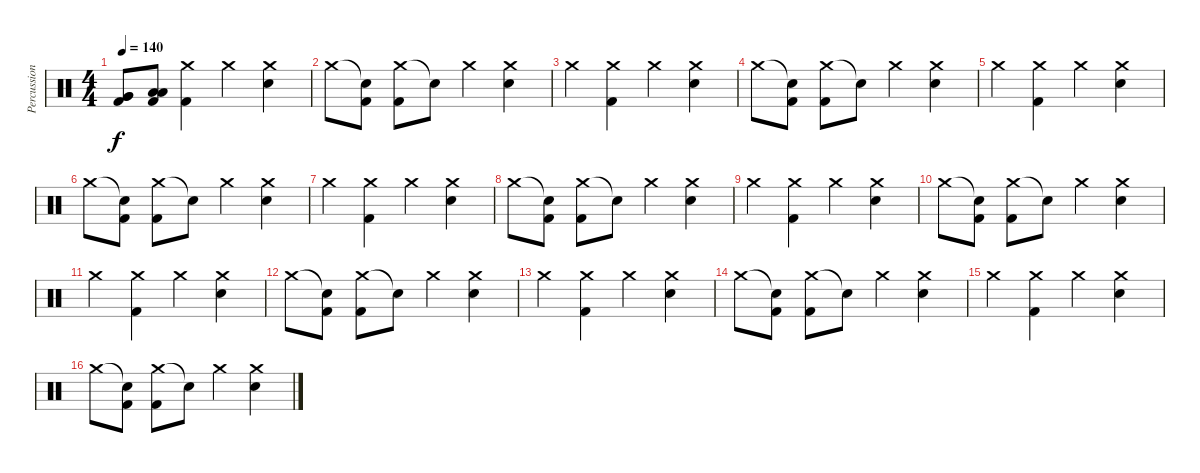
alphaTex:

\track ("Percussions" "Percussion") {instrument percussion}
\staff {score}
\articulation defaults
\ts (4 4)
\tempo 140
\clef neutral
\ks c
("Very Low Tom (hit)" "Very Low Tom (hit)" "Kick (hit) 2").8{dy f} ("Low Floor Tom (hit)" "Low Floor Tom (hit)" "Kick (hit) 2").8 ("Crash medium (hit)" "Kick (hit) 2").4 "Crash medium (hit)".4 ("Crash medium (hit)" "Electric Snare (hit)").4 |
"Crash medium (hit)".8 ("Snare (hit)"{t} "Kick (hit) 2").8 ("Crash medium (hit)" "Kick (hit) 2").8 "Snare (hit)"{t}.8 "Crash medium (hit)".4 ("Crash medium (hit)" "Electric Snare (hit)").4 |
"Crash medium (hit)".4 ("Crash medium (hit)" "Kick (hit) 2").4 "Crash medium (hit)".4 ("Crash medium (hit)" "Electric Snare (hit)").4 |
"Crash medium (hit)".8 ("Snare (hit)"{t} "Kick (hit) 2").8 ("Crash medium (hit)" "Kick (hit) 2").8 "Snare (hit)"{t}.8 "Crash medium (hit)".4 ("Crash medium (hit)" "Electric Snare (hit)").4 |
"Crash medium (hit)".4 ("Crash medium (hit)" "Kick (hit) 2").4 "Crash medium (hit)".4 ("Crash medium (hit)" "Electric Snare (hit)").4 |
"Crash medium (hit)".8 ("Snare (hit)"{t} "Kick (hit) 2").8 ("Crash medium (hit)" "Kick (hit) 2").8 "Snare (hit)"{t}.8 "Crash medium (hit)".4 ("Crash medium (hit)" "Electric Snare (hit)").4 |
"Crash medium (hit)".4 ("Crash medium (hit)" "Kick (hit) 2").4 "Crash medium (hit)".4 ("Crash medium (hit)" "Electric Snare (hit)").4 |
"Crash medium (hit)".8 ("Snare (hit)"{t} "Kick (hit) 2").8 ("Crash medium (hit)" "Kick (hit) 2").8 "Snare (hit)"{t}.8 "Crash medium (hit)".4 ("Crash medium (hit)" "Electric Snare (hit)").4 |
"Crash medium (hit)".4 ("Crash medium (hit)" "Kick (hit) 2").4 "Crash medium (hit)".4 ("Crash medium (hit)" "Electric Snare (hit)").4 |
"Crash medium (hit)".8 ("Snare (hit)"{t} "Kick (hit) 2").8 ("Crash medium (hit)" "Kick (hit) 2").8 "Snare (hit)"{t}.8 "Crash medium (hit)".4 ("Crash medium (hit)" "Electric Snare (hit)").4 |
"Crash medium (hit)".4 ("Crash medium (hit)" "Kick (hit) 2").4 "Crash medium (hit)".4 ("Crash medium (hit)" "Electric Snare (hit)").4 |
"Crash medium (hit)".8 ("Snare (hit)"{t} "Kick (hit) 2").8 ("Crash medium (hit)" "Kick (hit) 2").8 "Snare (hit)"{t}.8 "Crash medium (hit)".4 ("Crash medium (hit)" "Electric Snare (hit)").4 |
"Crash medium (hit)".4 ("Crash medium (hit)" "Kick (hit) 2").4 "Crash medium (hit)".4 ("Crash medium (hit)" "Electric Snare (hit)").4 |
"Crash medium (hit)".8 ("Snare (hit)"{t} "Kick (hit) 2").8 ("Crash medium (hit)" "Kick (hit) 2").8 "Snare (hit)"{t}.8 "Crash medium (hit)".4 ("Crash medium (hit)" "Electric Snare (hit)").4 |
"Crash medium (hit)".4 ("Crash medium (hit)" "Kick (hit) 2").4 "Crash medium (hit)".4 ("Crash medium (hit)" "Electric Snare (hit)").4 |
"Crash medium (hit)".8 ("Snare (hit)"{t} "Kick (hit) 2").8 ("Crash medium (hit)" "Kick (hit) 2").8 "Snare (hit)"{t}.8 "Crash medium (hit)".4 ("Crash medium (hit)" "Electric Snare (hit)").4
